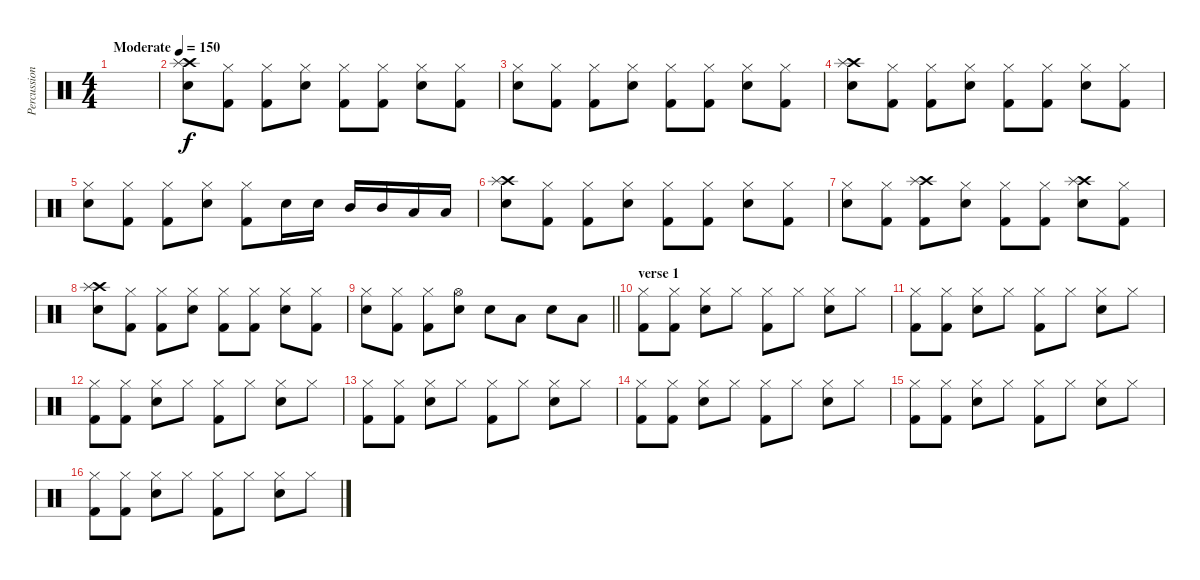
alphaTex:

\track ("Percussion" "Percussion") {instrument percussion}
\staff {score}
\articulation defaults
\ts (4 4)
\tempo (150 "Moderate")
\clef neutral
\ks c
|
("Crash high (hit)" "Electric Snare (hit)" "Splash (hit)").8 ("Hi-Hat (closed)" "Kick (hit) 2").8 ("Hi-Hat (closed)" "Kick (hit) 2").8 ("Hi-Hat (closed)" "Electric Snare (hit)").8 ("Hi-Hat (closed)" "Kick (hit) 2").8 ("Hi-Hat (closed)" "Kick (hit) 2").8 ("Hi-Hat (closed)" "Electric Snare (hit)").8 ("Hi-Hat (closed)" "Kick (hit) 2").8 |
("Hi-Hat (closed)" "Electric Snare (hit)").8 ("Hi-Hat (closed)" "Kick (hit) 2").8 ("Hi-Hat (closed)" "Kick (hit) 2").8 ("Hi-Hat (closed)" "Electric Snare (hit)").8 ("Hi-Hat (closed)" "Kick (hit) 2").8 ("Hi-Hat (closed)" "Kick (hit) 2").8 ("Hi-Hat (closed)" "Electric Snare (hit)").8 ("Hi-Hat (closed)" "Kick (hit) 2").8 |
("Crash high (hit)" "Electric Snare (hit)" "Splash (hit)").8 ("Hi-Hat (closed)" "Kick (hit) 2").8 ("Hi-Hat (closed)" "Kick (hit) 2").8 ("Hi-Hat (closed)" "Electric Snare (hit)").8 ("Hi-Hat (closed)" "Kick (hit) 2").8 ("Hi-Hat (closed)" "Kick (hit) 2").8 ("Hi-Hat (closed)" "Electric Snare (hit)").8 ("Hi-Hat (closed)" "Kick (hit) 2").8 |
("Hi-Hat (closed)" "Electric Snare (hit)").8 ("Hi-Hat (closed)" "Kick (hit) 2").8 ("Hi-Hat (closed)" "Kick (hit) 2").8 ("Hi-Hat (closed)" "Electric Snare (hit)").8 ("Hi-Hat (closed)" "Kick (hit) 2").8 "Electric Snare (hit)".16 "Electric Snare (hit)".16 "Mid Tom (hit)".16 "Mid Tom (hit)".16 "Low Floor Tom (hit)".16 "Low Floor Tom (hit)".16 |
("Crash high (hit)" "Electric Snare (hit)" "Splash (hit)").8 ("Hi-Hat (closed)" "Kick (hit) 2").8 ("Hi-Hat (closed)" "Kick (hit) 2").8 ("Hi-Hat (closed)" "Electric Snare (hit)").8 ("Hi-Hat (closed)" "Kick (hit) 2").8 ("Hi-Hat (closed)" "Kick (hit) 2").8 ("Hi-Hat (closed)" "Electric Snare (hit)").8 ("Hi-Hat (closed)" "Kick (hit) 2").8 |
("Hi-Hat (closed)" "Electric Snare (hit)").8 ("Hi-Hat (closed)" "Kick (hit) 2").8 ("Crash high (hit)" "Kick (hit) 2" "Splash (hit)").8 ("Hi-Hat (closed)" "Electric Snare (hit)").8 ("Hi-Hat (closed)" "Kick (hit) 2").8 ("Hi-Hat (closed)" "Kick (hit) 2").8 ("Crash high (hit)" "Electric Snare (hit)" "Splash (hit)").8 ("Hi-Hat (closed)" "Kick (hit) 2").8 |
("Crash high (hit)" "Electric Snare (hit)" "Splash (hit)").8 ("Hi-Hat (closed)" "Kick (hit) 2").8 ("Hi-Hat (closed)" "Kick (hit) 2").8 ("Hi-Hat (closed)" "Electric Snare (hit)").8 ("Hi-Hat (closed)" "Kick (hit) 2").8 ("Hi-Hat (closed)" "Kick (hit) 2").8 ("Hi-Hat (closed)" "Electric Snare (hit)").8 ("Hi-Hat (closed)" "Kick (hit) 2").8 |
\barLineRight lightlight
("Hi-Hat (closed)" "Electric Snare (hit)").8 ("Hi-Hat (closed)" "Kick (hit) 2").8 ("Hi-Hat (closed)" "Kick (hit) 2").8 ("Hi-Hat (open)" "Electric Snare (hit)").8 "Electric Snare (hit)".8 "Low Floor Tom (hit)".8 "Electric Snare (hit)".8 "Low Floor Tom (hit)".8 |
\section ("" "verse 1")
("Hi-Hat (closed)" "Kick (hit) 2").8 ("Hi-Hat (closed)" "Kick (hit) 2").8 ("Hi-Hat (closed)" "Electric Snare (hit)").8 "Hi-Hat (closed)".8 ("Hi-Hat (closed)" "Kick (hit) 2").8 "Hi-Hat (closed)".8 ("Hi-Hat (closed)" "Electric Snare (hit)").8 "Hi-Hat (closed)".8 |
("Hi-Hat (closed)" "Kick (hit) 2").8 ("Hi-Hat (closed)" "Kick (hit) 2").8 ("Hi-Hat (closed)" "Electric Snare (hit)").8 "Hi-Hat (closed)".8 ("Hi-Hat (closed)" "Kick (hit) 2").8 "Hi-Hat (closed)".8 ("Hi-Hat (closed)" "Electric Snare (hit)").8 "Hi-Hat (closed)".8 |
("Hi-Hat (closed)" "Kick (hit) 2").8 ("Hi-Hat (closed)" "Kick (hit) 2").8 ("Hi-Hat (closed)" "Electric Snare (hit)").8 "Hi-Hat (closed)".8 ("Hi-Hat (closed)" "Kick (hit) 2").8 "Hi-Hat (closed)".8 ("Hi-Hat (closed)" "Electric Snare (hit)").8 "Hi-Hat (closed)".8 |
("Hi-Hat (closed)" "Kick (hit) 2").8 ("Hi-Hat (closed)" "Kick (hit) 2").8 ("Hi-Hat (closed)" "Electric Snare (hit)").8 "Hi-Hat (closed)".8 ("Hi-Hat (closed)" "Kick (hit) 2").8 "Hi-Hat (closed)".8 ("Hi-Hat (closed)" "Electric Snare (hit)").8 "Hi-Hat (closed)".8 |
("Hi-Hat (closed)" "Kick (hit) 2").8 ("Hi-Hat (closed)" "Kick (hit) 2").8 ("Hi-Hat (closed)" "Electric Snare (hit)").8 "Hi-Hat (closed)".8 ("Hi-Hat (closed)" "Kick (hit) 2").8 "Hi-Hat (closed)".8 ("Hi-Hat (closed)" "Electric Snare (hit)").8 "Hi-Hat (closed)".8 |
("Hi-Hat (closed)" "Kick (hit) 2").8 ("Hi-Hat (closed)" "Kick (hit) 2").8 ("Hi-Hat (closed)" "Electric Snare (hit)").8 "Hi-Hat (closed)".8 ("Hi-Hat (closed)" "Kick (hit) 2").8 "Hi-Hat (closed)".8 ("Hi-Hat (closed)" "Electric Snare (hit)").8 "Hi-Hat (closed)".8 |
("Hi-Hat (closed)" "Kick (hit) 2").8 ("Hi-Hat (closed)" "Kick (hit) 2").8 ("Hi-Hat (closed)" "Electric Snare (hit)").8 "Hi-Hat (closed)".8 ("Hi-Hat (closed)" "Kick (hit) 2").8 "Hi-Hat (closed)".8 ("Hi-Hat (closed)" "Electric Snare (hit)").8 "Hi-Hat (closed)".8
